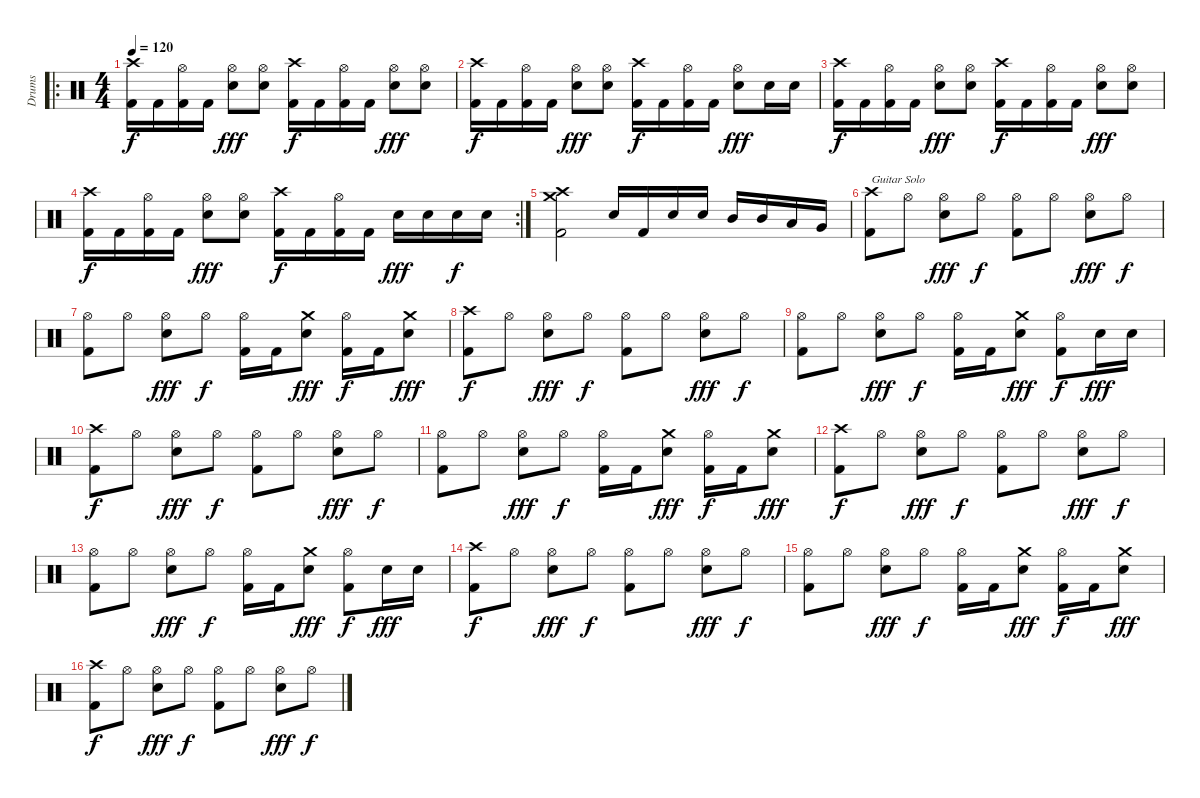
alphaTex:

\track ("Drums" "Drums") {instrument percussion}
\staff {score}
\articulation defaults
\ro
\ts (4 4)
\tempo 120
\clef neutral
\ks c
("Crash high (hit)" "Kick (hit) 2").16{dy f} "Kick (hit) 2".16 ("Hi-Hat (open)" "Kick (hit) 2").16 "Kick (hit) 2".16 ("Hi-Hat (open)" "Snare (hit) 2").8{dy fff} ("Hi-Hat (open)" "Snare (hit) 2").8 ("Crash high (hit)" "Kick (hit) 2").16{dy f} "Kick (hit) 2".16 ("Hi-Hat (open)" "Kick (hit) 2").16 "Kick (hit) 2".16 ("Hi-Hat (open)" "Snare (hit) 2").8{dy fff} ("Hi-Hat (open)" "Snare (hit) 2").8 |
("Crash high (hit)" "Kick (hit) 2").16{dy f} "Kick (hit) 2".16 ("Hi-Hat (open)" "Kick (hit) 2").16 "Kick (hit) 2".16 ("Hi-Hat (open)" "Snare (hit) 2").8{dy fff} ("Hi-Hat (open)" "Snare (hit) 2").8 ("Crash high (hit)" "Kick (hit) 2").16{dy f} "Kick (hit) 2".16 ("Hi-Hat (open)" "Kick (hit) 2").16 "Kick (hit) 2".16 ("Hi-Hat (open)" "Snare (hit) 2").8{dy fff} "Snare (hit) 2".16 "Snare (hit) 2".16 |
("Crash high (hit)" "Kick (hit) 2").16{dy f} "Kick (hit) 2".16 ("Hi-Hat (open)" "Kick (hit) 2").16 "Kick (hit) 2".16 ("Hi-Hat (open)" "Snare (hit) 2").8{dy fff} ("Hi-Hat (open)" "Snare (hit) 2").8 ("Crash high (hit)" "Kick (hit) 2").16{dy f} "Kick (hit) 2".16 ("Hi-Hat (open)" "Kick (hit) 2").16 "Kick (hit) 2".16 ("Hi-Hat (open)" "Snare (hit) 2").8{dy fff} ("Hi-Hat (open)" "Snare (hit) 2").8 |
\rc 2
("Crash high (hit)" "Kick (hit) 2").16{dy f} "Kick (hit) 2".16 ("Hi-Hat (open)" "Kick (hit) 2").16 "Kick (hit) 2".16 ("Hi-Hat (open)" "Snare (hit) 2").8{dy fff} ("Hi-Hat (open)" "Snare (hit) 2").8 ("Crash high (hit)" "Kick (hit) 2").16{dy f} "Kick (hit) 2".16 ("Hi-Hat (open)" "Kick (hit) 2").16 "Kick (hit) 2".16 "Snare (hit) 2".16{dy fff} "Snare (hit) 2".16 "Snare (hit) 2".16{dy f} "Snare (hit) 2".16 |
("Crash high (hit)" "Crash medium (hit)" "Kick (hit) 2").2 "Snare (hit) 2".16 "Kick (hit) 2".16 "Snare (hit) 2".16 "Snare (hit) 2".16 "Mid Tom (hit)".16 "Mid Tom (hit)".16 "Low Tom (hit)".16 "Very Low Tom (hit)".16 |
("Crash high (hit)" "Kick (hit) 2").8{txt "Guitar Solo"} "Hi-Hat (open)".8 ("Hi-Hat (open)" "Snare (hit) 2").8{dy fff} "Hi-Hat (open)".8{dy f} ("Hi-Hat (open)" "Kick (hit) 2").8 "Hi-Hat (open)".8 ("Hi-Hat (open)" "Snare (hit) 2").8{dy fff} "Hi-Hat (open)".8{dy f} |
("Hi-Hat (open)" "Kick (hit) 2").8 "Hi-Hat (open)".8 ("Hi-Hat (open)" "Snare (hit) 2").8{dy fff} "Hi-Hat (open)".8{dy f} ("Hi-Hat (open)" "Kick (hit) 2").16 "Kick (hit) 2".16 ("Crash medium (hit)" "Snare (hit) 2").8{dy fff} ("Hi-Hat (open)" "Kick (hit) 2").16{dy f} "Kick (hit) 2".16 ("Crash medium (hit)" "Snare (hit) 2").8{dy fff} |
("Crash high (hit)" "Kick (hit) 2").8{dy f} "Hi-Hat (open)".8 ("Hi-Hat (open)" "Snare (hit) 2").8{dy fff} "Hi-Hat (open)".8{dy f} ("Hi-Hat (open)" "Kick (hit) 2").8 "Hi-Hat (open)".8 ("Hi-Hat (open)" "Snare (hit) 2").8{dy fff} "Hi-Hat (open)".8{dy f} |
("Hi-Hat (open)" "Kick (hit) 2").8 "Hi-Hat (open)".8 ("Hi-Hat (open)" "Snare (hit) 2").8{dy fff} "Hi-Hat (open)".8{dy f} ("Hi-Hat (open)" "Kick (hit) 2").16 "Kick (hit) 2".16 ("Crash medium (hit)" "Snare (hit) 2").8{dy fff} ("Hi-Hat (open)" "Kick (hit) 2").8{dy f} "Snare (hit) 2".16{dy fff} "Snare (hit) 2".16 |
("Crash high (hit)" "Kick (hit) 2").8{dy f} "Hi-Hat (open)".8 ("Hi-Hat (open)" "Snare (hit) 2").8{dy fff} "Hi-Hat (open)".8{dy f} ("Hi-Hat (open)" "Kick (hit) 2").8 "Hi-Hat (open)".8 ("Hi-Hat (open)" "Snare (hit) 2").8{dy fff} "Hi-Hat (open)".8{dy f} |
("Hi-Hat (open)" "Kick (hit) 2").8 "Hi-Hat (open)".8 ("Hi-Hat (open)" "Snare (hit) 2").8{dy fff} "Hi-Hat (open)".8{dy f} ("Hi-Hat (open)" "Kick (hit) 2").16 "Kick (hit) 2".16 ("Crash medium (hit)" "Snare (hit) 2").8{dy fff} ("Hi-Hat (open)" "Kick (hit) 2").16{dy f} "Kick (hit) 2".16 ("Crash medium (hit)" "Snare (hit) 2").8{dy fff} |
("Crash high (hit)" "Kick (hit) 2").8{dy f} "Hi-Hat (open)".8 ("Hi-Hat (open)" "Snare (hit) 2").8{dy fff} "Hi-Hat (open)".8{dy f} ("Hi-Hat (open)" "Kick (hit) 2").8 "Hi-Hat (open)".8 ("Hi-Hat (open)" "Snare (hit) 2").8{dy fff} "Hi-Hat (open)".8{dy f} |
("Hi-Hat (open)" "Kick (hit) 2").8 "Hi-Hat (open)".8 ("Hi-Hat (open)" "Snare (hit) 2").8{dy fff} "Hi-Hat (open)".8{dy f} ("Hi-Hat (open)" "Kick (hit) 2").16 "Kick (hit) 2".16 ("Crash medium (hit)" "Snare (hit) 2").8{dy fff} ("Hi-Hat (open)" "Kick (hit) 2").8{dy f} "Snare (hit) 2".16{dy fff} "Snare (hit) 2".16 |
("Crash high (hit)" "Kick (hit) 2").8{dy f} "Hi-Hat (open)".8 ("Hi-Hat (open)" "Snare (hit) 2").8{dy fff} "Hi-Hat (open)".8{dy f} ("Hi-Hat (open)" "Kick (hit) 2").8 "Hi-Hat (open)".8 ("Hi-Hat (open)" "Snare (hit) 2").8{dy fff} "Hi-Hat (open)".8{dy f} |
("Hi-Hat (open)" "Kick (hit) 2").8 "Hi-Hat (open)".8 ("Hi-Hat (open)" "Snare (hit) 2").8{dy fff} "Hi-Hat (open)".8{dy f} ("Hi-Hat (open)" "Kick (hit) 2").16 "Kick (hit) 2".16 ("Crash medium (hit)" "Snare (hit) 2").8{dy fff} ("Hi-Hat (open)" "Kick (hit) 2").16{dy f} "Kick (hit) 2".16 ("Crash medium (hit)" "Snare (hit) 2").8{dy fff} |
("Crash high (hit)" "Kick (hit) 2").8{dy f} "Hi-Hat (open)".8 ("Hi-Hat (open)" "Snare (hit) 2").8{dy fff} "Hi-Hat (open)".8{dy f} ("Hi-Hat (open)" "Kick (hit) 2").8 "Hi-Hat (open)".8 ("Hi-Hat (open)" "Snare (hit) 2").8{dy fff} "Hi-Hat (open)".8{dy f}
